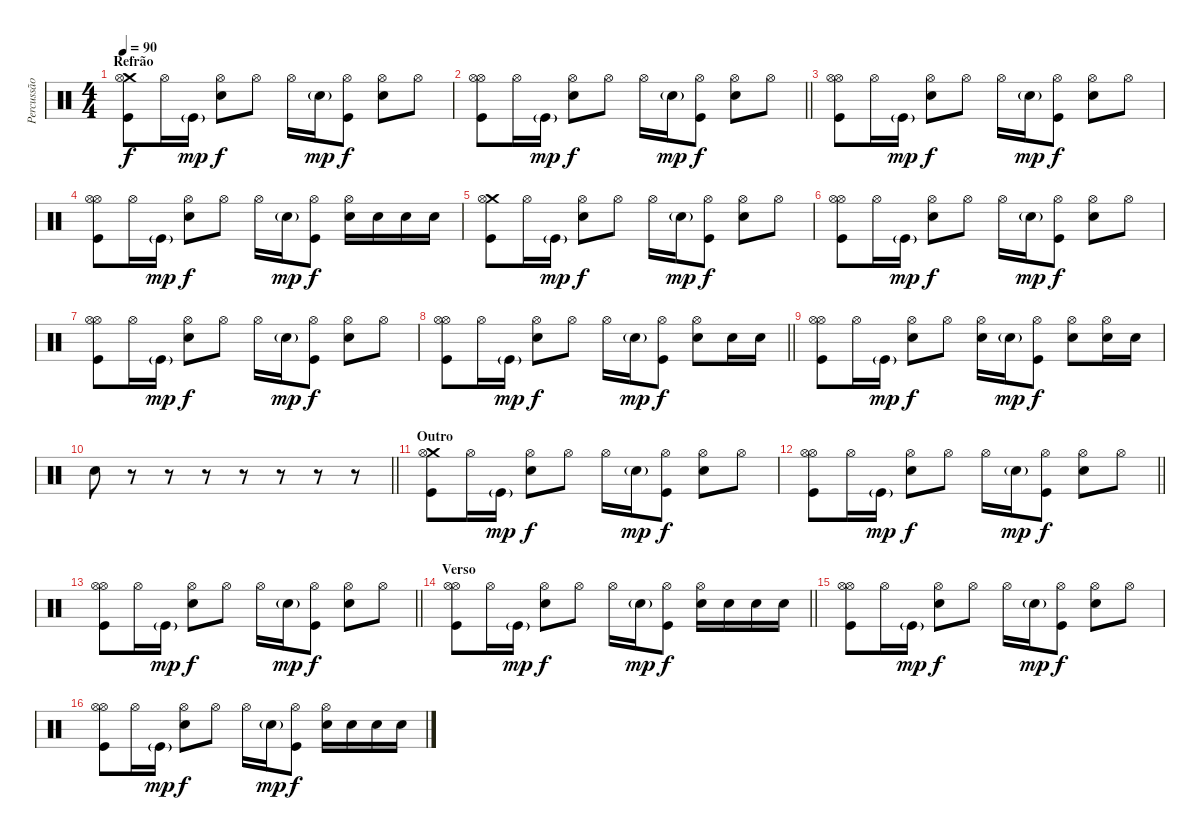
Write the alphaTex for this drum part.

\track ("Percussão" "Percussão") {instrument percussion}
\staff {score}
\articulation defaults
\ts (4 4)
\section ("" "Refrão")
\tempo 90
\clef neutral
\ks c
("Crash medium (hit)" "Kick (hit)" "Hi-Hat (open)").8{dy f} "Hi-Hat (open)".16 "Kick (hit)"{g}.16{dy mp} ("Snare (hit) 2" "Hi-Hat (open)").8{dy f} "Hi-Hat (open)".8 "Hi-Hat (open)".16 "Snare (hit) 2"{g}.16{dy mp} ("Hi-Hat (open)" "Kick (hit)").8{dy f} ("Hi-Hat (open)" "Snare (hit) 2").8 "Hi-Hat (open)".8 |
\barLineRight lightlight
("Hi-Hat (open)" "Kick (hit)" "Hi-Hat (open)").8 "Hi-Hat (open)".16 "Kick (hit)"{g}.16{dy mp} ("Snare (hit) 2" "Hi-Hat (open)").8{dy f} "Hi-Hat (open)".8 "Hi-Hat (open)".16 "Snare (hit) 2"{g}.16{dy mp} ("Hi-Hat (open)" "Kick (hit)").8{dy f} ("Hi-Hat (open)" "Snare (hit) 2").8 "Hi-Hat (open)".8 |
\section ("" "")
("Hi-Hat (open)" "Kick (hit)" "Hi-Hat (open)").8 "Hi-Hat (open)".16 "Kick (hit)"{g}.16{dy mp} ("Snare (hit) 2" "Hi-Hat (open)").8{dy f} "Hi-Hat (open)".8 "Hi-Hat (open)".16 "Snare (hit) 2"{g}.16{dy mp} ("Hi-Hat (open)" "Kick (hit)").8{dy f} ("Hi-Hat (open)" "Snare (hit) 2").8 "Hi-Hat (open)".8 |
("Hi-Hat (open)" "Kick (hit)" "Hi-Hat (open)").8 "Hi-Hat (open)".16 "Kick (hit)"{g}.16{dy mp} ("Snare (hit) 2" "Hi-Hat (open)").8{dy f} "Hi-Hat (open)".8 "Hi-Hat (open)".16 "Snare (hit) 2"{g}.16{dy mp} ("Hi-Hat (open)" "Kick (hit)").8{dy f} ("Hi-Hat (open)" "Snare (hit) 2").16 "Snare (hit) 2".16 "Snare (hit) 2".16 "Snare (hit) 2".16 |
("Crash medium (hit)" "Kick (hit)" "Hi-Hat (open)").8 "Hi-Hat (open)".16 "Kick (hit)"{g}.16{dy mp} ("Snare (hit) 2" "Hi-Hat (open)").8{dy f} "Hi-Hat (open)".8 "Hi-Hat (open)".16 "Snare (hit) 2"{g}.16{dy mp} ("Hi-Hat (open)" "Kick (hit)").8{dy f} ("Hi-Hat (open)" "Snare (hit) 2").8 "Hi-Hat (open)".8 |
("Hi-Hat (open)" "Kick (hit)" "Hi-Hat (open)").8 "Hi-Hat (open)".16 "Kick (hit)"{g}.16{dy mp} ("Snare (hit) 2" "Hi-Hat (open)").8{dy f} "Hi-Hat (open)".8 "Hi-Hat (open)".16 "Snare (hit) 2"{g}.16{dy mp} ("Hi-Hat (open)" "Kick (hit)").8{dy f} ("Hi-Hat (open)" "Snare (hit) 2").8 "Hi-Hat (open)".8 |
("Hi-Hat (open)" "Kick (hit)" "Hi-Hat (open)").8 "Hi-Hat (open)".16 "Kick (hit)"{g}.16{dy mp} ("Snare (hit) 2" "Hi-Hat (open)").8{dy f} "Hi-Hat (open)".8 "Hi-Hat (open)".16 "Snare (hit) 2"{g}.16{dy mp} ("Hi-Hat (open)" "Kick (hit)").8{dy f} ("Hi-Hat (open)" "Snare (hit) 2").8 "Hi-Hat (open)".8 |
\barLineRight lightlight
("Hi-Hat (open)" "Kick (hit)" "Hi-Hat (open)").8 "Hi-Hat (open)".16 "Kick (hit)"{g}.16{dy mp} ("Snare (hit) 2" "Hi-Hat (open)").8{dy f} "Hi-Hat (open)".8 "Hi-Hat (open)".16 "Snare (hit) 2"{g}.16{dy mp} ("Hi-Hat (open)" "Kick (hit)").8{dy f} ("Hi-Hat (open)" "Snare (hit) 2").8 "Snare (hit) 2".16 "Snare (hit) 2".16 |
("Hi-Hat (open)" "Kick (hit)" "Hi-Hat (open)").8 "Hi-Hat (open)".16 "Kick (hit)"{g}.16{dy mp} ("Snare (hit) 2" "Hi-Hat (open)").8{dy f} "Hi-Hat (open)".8 ("Hi-Hat (open)" "Snare (hit) 2").16 "Snare (hit) 2"{g}.16{dy mp} ("Hi-Hat (open)" "Kick (hit)").8{dy f} ("Hi-Hat (open)" "Snare (hit) 2").8 ("Snare (hit) 2" "Hi-Hat (open)").16 "Snare (hit) 2".16 |
\barLineRight lightlight "Snare (hit) 2".8
r.8 r.8 r.8 r.8 r.8 r.8 r.8 |
\section ("" "Outro")
("Crash medium (hit)" "Kick (hit)" "Hi-Hat (open)").8 "Hi-Hat (open)".16 "Kick (hit)"{g}.16{dy mp} ("Snare (hit) 2" "Hi-Hat (open)").8{dy f} "Hi-Hat (open)".8 "Hi-Hat (open)".16 "Snare (hit) 2"{g}.16{dy mp} ("Hi-Hat (open)" "Kick (hit)").8{dy f} ("Hi-Hat (open)" "Snare (hit) 2").8 "Hi-Hat (open)".8 |
\barLineRight lightlight
("Hi-Hat (open)" "Kick (hit)" "Hi-Hat (open)").8 "Hi-Hat (open)".16 "Kick (hit)"{g}.16{dy mp} ("Snare (hit) 2" "Hi-Hat (open)").8{dy f} "Hi-Hat (open)".8 "Hi-Hat (open)".16 "Snare (hit) 2"{g}.16{dy mp} ("Hi-Hat (open)" "Kick (hit)").8{dy f} ("Hi-Hat (open)" "Snare (hit) 2").8 "Hi-Hat (open)".8 |
\barLineRight lightlight
("Hi-Hat (open)" "Kick (hit)" "Hi-Hat (open)").8 "Hi-Hat (open)".16 "Kick (hit)"{g}.16{dy mp} ("Snare (hit) 2" "Hi-Hat (open)").8{dy f} "Hi-Hat (open)".8 "Hi-Hat (open)".16 "Snare (hit) 2"{g}.16{dy mp} ("Hi-Hat (open)" "Kick (hit)").8{dy f} ("Hi-Hat (open)" "Snare (hit) 2").8 "Hi-Hat (open)".8 |
\section ("" "Verso")
\barLineRight lightlight
("Hi-Hat (open)" "Kick (hit)" "Hi-Hat (open)").8 "Hi-Hat (open)".16 "Kick (hit)"{g}.16{dy mp} ("Snare (hit) 2" "Hi-Hat (open)").8{dy f} "Hi-Hat (open)".8 "Hi-Hat (open)".16 "Snare (hit) 2"{g}.16{dy mp} ("Hi-Hat (open)" "Kick (hit)").8{dy f} ("Hi-Hat (open)" "Snare (hit) 2").16 "Snare (hit) 2".16 "Snare (hit) 2".16 "Snare (hit) 2".16 |
("Hi-Hat (open)" "Kick (hit)" "Hi-Hat (open)").8 "Hi-Hat (open)".16 "Kick (hit)"{g}.16{dy mp} ("Snare (hit) 2" "Hi-Hat (open)").8{dy f} "Hi-Hat (open)".8 "Hi-Hat (open)".16 "Snare (hit) 2"{g}.16{dy mp} ("Hi-Hat (open)" "Kick (hit)").8{dy f} ("Hi-Hat (open)" "Snare (hit) 2").8 "Hi-Hat (open)".8 |
("Hi-Hat (open)" "Kick (hit)" "Hi-Hat (open)").8 "Hi-Hat (open)".16 "Kick (hit)"{g}.16{dy mp} ("Snare (hit) 2" "Hi-Hat (open)").8{dy f} "Hi-Hat (open)".8 "Hi-Hat (open)".16 "Snare (hit) 2"{g}.16{dy mp} ("Hi-Hat (open)" "Kick (hit)").8{dy f} ("Hi-Hat (open)" "Snare (hit) 2").16 "Snare (hit) 2".16 "Snare (hit) 2".16 "Snare (hit) 2".16
